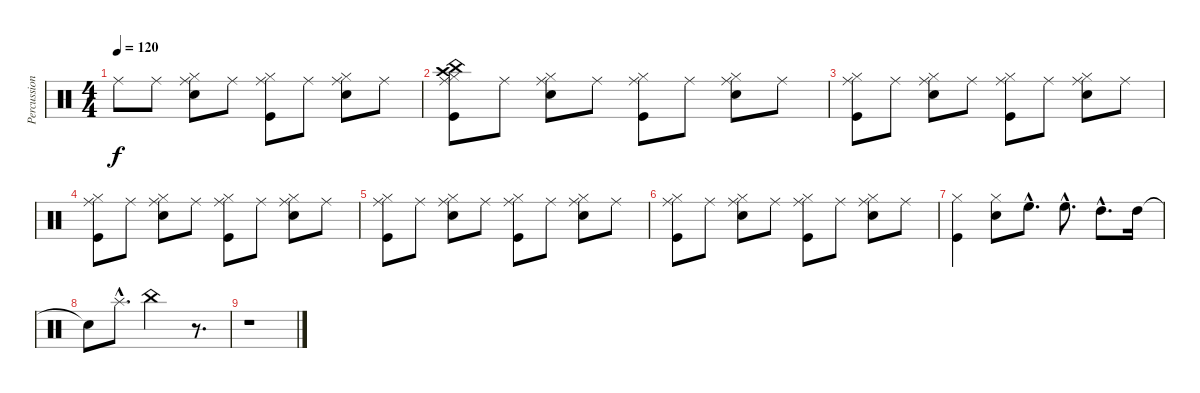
\track ("Percussion" "Percussion") {instrument percussion}
\staff {score}
\articulation defaults
\ts (4 4)
\tempo 120
\clef neutral
\ks c "Ride (middle)".8{dy f} "Ride (middle)".8
("Ride (middle)" "Hi-Hat (closed)" "Snare (hit) 2").8 "Ride (middle)".8 ("Ride (middle)" "Hi-Hat (closed)" "Kick (hit)").8 "Ride (middle)".8 ("Ride (middle)" "Hi-Hat (closed)" "Snare (hit) 2").8 "Ride (middle)".8 |
("Crash high (hit)" "Ride (middle)" "Hi-Hat (closed)" "Kick (hit)" "China (hit)").8 "Ride (middle)".8 ("Ride (middle)" "Hi-Hat (closed)" "Snare (hit) 2").8 "Ride (middle)".8 ("Ride (middle)" "Hi-Hat (closed)" "Kick (hit)").8 "Ride (middle)".8 ("Ride (middle)" "Hi-Hat (closed)" "Snare (hit) 2").8 "Ride (middle)".8 |
("Hi-Hat (closed)" "Kick (hit)" "Ride (middle)").8 "Ride (middle)".8 ("Ride (middle)" "Hi-Hat (closed)" "Snare (hit) 2").8 "Ride (middle)".8 ("Ride (middle)" "Hi-Hat (closed)" "Kick (hit)").8 "Ride (middle)".8 ("Ride (middle)" "Hi-Hat (closed)" "Snare (hit) 2").8 "Ride (middle)".8 |
("Hi-Hat (closed)" "Kick (hit)" "Ride (middle)").8 "Ride (middle)".8 ("Ride (middle)" "Hi-Hat (closed)" "Snare (hit) 2").8 "Ride (middle)".8 ("Ride (middle)" "Hi-Hat (closed)" "Kick (hit)").8 "Ride (middle)".8 ("Ride (middle)" "Hi-Hat (closed)" "Snare (hit) 2").8 "Ride (middle)".8 |
("Hi-Hat (closed)" "Kick (hit)" "Ride (middle)").8 "Ride (middle)".8 ("Ride (middle)" "Hi-Hat (closed)" "Snare (hit) 2").8 "Ride (middle)".8 ("Ride (middle)" "Hi-Hat (closed)" "Kick (hit)").8 "Ride (middle)".8 ("Ride (middle)" "Hi-Hat (closed)" "Snare (hit) 2").8 "Ride (middle)".8 |
("Hi-Hat (closed)" "Kick (hit)" "Ride (middle)").8 "Ride (middle)".8 ("Ride (middle)" "Hi-Hat (closed)" "Snare (hit) 2").8 "Ride (middle)".8 ("Ride (middle)" "Hi-Hat (closed)" "Kick (hit)").8 "Ride (middle)".8 ("Ride (middle)" "Hi-Hat (closed)" "Snare (hit) 2").8 "Ride (middle)".8 |
("Hi-Hat (closed)" "Kick (hit)").4 ("Hi-Hat (closed)" "Snare (hit) 2").8 "High Floor Tom (hit)"{hac}.8{d} "High Floor Tom (hit)"{hac}.8{d} "High Tom (hit)"{hac}.8{d} "High Tom (hit)".16 |
"Snare (hit)"{t}.8 "Splash (hit)"{hac}.8{d} "China (hit)".2 r.8{d} |
r.1
